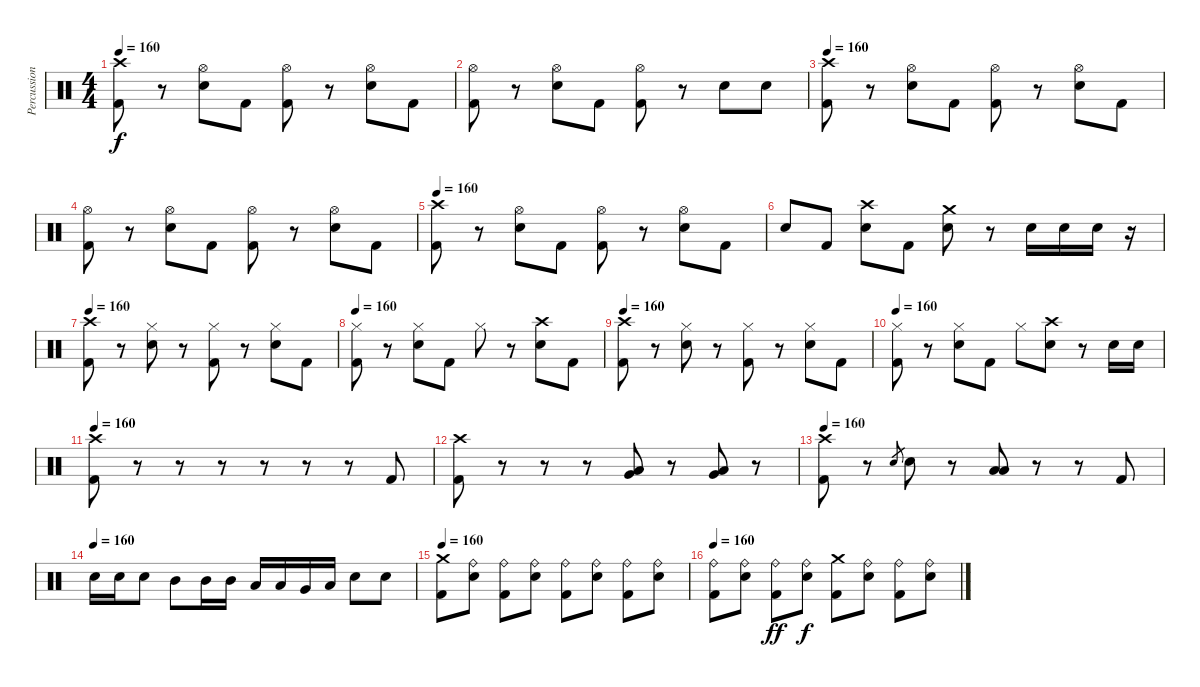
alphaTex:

\track ("Percussion" "Percussion") {instrument percussion}
\staff {score}
\articulation defaults
\ts (4 4)
\tempo 160
\clef neutral
\ks c
("Crash high (hit)" "Kick (hit) 2").8{dy f} r.8 ("Hi-Hat (open)" "Snare (hit) 2").8 "Kick (hit) 2".8 ("Hi-Hat (open)" "Kick (hit) 2").8 r.8 ("Hi-Hat (open)" "Snare (hit) 2").8 "Kick (hit) 2".8 |
("Hi-Hat (open)" "Kick (hit) 2").8 r.8 ("Hi-Hat (open)" "Snare (hit) 2").8 "Kick (hit) 2".8 ("Hi-Hat (open)" "Kick (hit) 2").8 r.8 "Snare (hit) 2".8 "Snare (hit) 2".8 |
\tempo 160
("Crash high (hit)" "Kick (hit) 2").8 r.8 ("Hi-Hat (open)" "Snare (hit) 2").8 "Kick (hit) 2".8 ("Hi-Hat (open)" "Kick (hit) 2").8 r.8 ("Hi-Hat (open)" "Snare (hit) 2").8 "Kick (hit) 2".8 |
("Hi-Hat (open)" "Kick (hit) 2").8 r.8 ("Hi-Hat (open)" "Snare (hit) 2").8 "Kick (hit) 2".8 ("Hi-Hat (open)" "Kick (hit) 2").8 r.8 ("Hi-Hat (open)" "Snare (hit) 2").8 "Kick (hit) 2".8 |
\tempo 160
("Crash high (hit)" "Kick (hit) 2").8 r.8 ("Hi-Hat (open)" "Snare (hit) 2").8 "Kick (hit) 2".8 ("Hi-Hat (open)" "Kick (hit) 2").8 r.8 ("Hi-Hat (open)" "Snare (hit) 2").8 "Kick (hit) 2".8 |
"Snare (hit) 2".8 "Kick (hit) 2".8 ("Crash high (hit)" "Snare (hit) 2").8 "Kick (hit) 2".8 ("Crash medium (hit)" "Snare (hit) 2").8 r.8 "Snare (hit) 2".16 "Snare (hit) 2".16 "Snare (hit) 2".16 r.16 |
\tempo 160
("Crash high (hit)" "Kick (hit) 2").8 r.8 ("Hi-Hat (closed)" "Snare (hit) 2").8 r.8 ("Hi-Hat (closed)" "Kick (hit) 2").8 r.8 ("Hi-Hat (closed)" "Snare (hit) 2").8 "Kick (hit) 2".8 |
\tempo 160
("Hi-Hat (closed)" "Kick (hit) 2").8 r.8 ("Hi-Hat (closed)" "Snare (hit) 2").8 "Kick (hit) 2".8 "Hi-Hat (closed)".8 r.8 ("Crash high (hit)" "Snare (hit) 2").8 "Kick (hit) 2".8 |
\tempo 160
("Crash high (hit)" "Kick (hit) 2").8 r.8 ("Hi-Hat (closed)" "Snare (hit) 2").8 r.8 ("Hi-Hat (closed)" "Kick (hit) 2").8 r.8 ("Hi-Hat (closed)" "Snare (hit) 2").8 "Kick (hit) 2".8 |
\tempo 160
("Hi-Hat (closed)" "Kick (hit) 2").8 r.8 ("Hi-Hat (closed)" "Snare (hit) 2").8 "Kick (hit) 2".8 "Hi-Hat (closed)".8 ("Crash high (hit)" "Snare (hit) 2").8 r.8 "Snare (hit) 2".16 "Snare (hit) 2".16 |
\tempo 160
("Crash high (hit)" "Kick (hit) 2").8 r.8 r.8 r.8 r.8 r.8 r.8 "Kick (hit) 2".8 |
("Crash high (hit)" "Kick (hit) 2").8 r.8 r.8 r.8 ("Low Tom (hit)" "Very Low Tom (hit)").8 r.8 ("Very Low Tom (hit)" "Low Floor Tom (hit)").8 r.8 |
\tempo 160
("Crash high (hit)" "Kick (hit) 2").8 r.8 "Snare (hit) 2".8{gr} "Snare (hit) 2".8 r.8 ("Low Floor Tom (hit)" "Low Floor Tom (hit)").8 r.8 r.8 "Kick (hit) 2".8 |
\tempo (160)
"Snare (hit) 2".16 "Snare (hit) 2".16 "Snare (hit) 2".8 "Mid Tom (hit)".8 "Mid Tom (hit)".16 "Mid Tom (hit)".16 "Low Tom (hit)".16 "Low Tom (hit)".16 "Very Low Tom (hit)".16 "Low Floor Tom (hit)".16 "Snare (hit) 2".8 "Snare (hit) 2".8 |
\tempo 160
("Crash medium (hit)" "Kick (hit) 2").8 ("Ride (bell)" "Snare (hit) 2").8 ("Ride (bell)" "Kick (hit) 2").8 ("Ride (bell)" "Snare (hit) 2").8 ("Ride (bell)" "Kick (hit) 2").8 ("Ride (bell)" "Snare (hit) 2").8 ("Ride (bell)" "Kick (hit) 2").8 ("Ride (bell)" "Snare (hit) 2").8 |
\tempo 160
("Ride (bell)" "Kick (hit) 2").8 ("Ride (bell)" "Snare (hit) 2").8 ("Ride (bell)" "Kick (hit) 2").8{dy ff} ("Ride (bell)" "Snare (hit) 2").8{dy f} ("Crash medium (hit)" "Kick (hit) 2").8 ("Ride (bell)" "Snare (hit) 2").8 ("Ride (bell)" "Kick (hit) 2").8 ("Ride (bell)" "Snare (hit) 2").8
